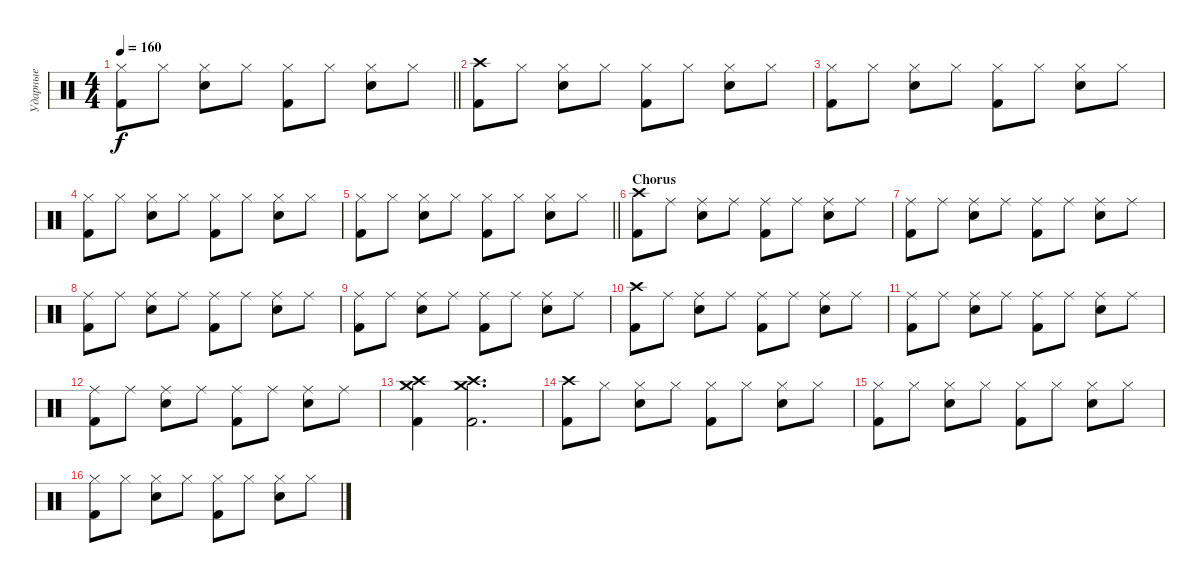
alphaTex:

\track ("Ударные" "Ударные") {instrument percussion}
\staff {score}
\articulation defaults
\ts (4 4)
\tempo 160
\clef neutral
\barLineRight lightlight
\ks c
("Hi-Hat (closed)" "Kick (hit) 2").8{dy f} "Hi-Hat (closed)".8 ("Hi-Hat (closed)" "Snare (hit) 2").8 "Hi-Hat (closed)".8 ("Hi-Hat (closed)" "Kick (hit) 2").8 "Hi-Hat (closed)".8 ("Hi-Hat (closed)" "Snare (hit) 2").8 "Hi-Hat (closed)".8 |
("Crash high (hit)" "Kick (hit) 2").8 "Hi-Hat (closed)".8 ("Hi-Hat (closed)" "Snare (hit) 2").8 "Hi-Hat (closed)".8 ("Hi-Hat (closed)" "Kick (hit) 2").8 "Hi-Hat (closed)".8 ("Hi-Hat (closed)" "Snare (hit) 2").8 "Hi-Hat (closed)".8 |
("Hi-Hat (closed)" "Kick (hit) 2").8 "Hi-Hat (closed)".8 ("Hi-Hat (closed)" "Snare (hit) 2").8 "Hi-Hat (closed)".8 ("Hi-Hat (closed)" "Kick (hit) 2").8 "Hi-Hat (closed)".8 ("Hi-Hat (closed)" "Snare (hit) 2").8 "Hi-Hat (closed)".8 |
("Hi-Hat (closed)" "Kick (hit) 2").8 "Hi-Hat (closed)".8 ("Hi-Hat (closed)" "Snare (hit) 2").8 "Hi-Hat (closed)".8 ("Hi-Hat (closed)" "Kick (hit) 2").8 "Hi-Hat (closed)".8 ("Hi-Hat (closed)" "Snare (hit) 2").8 "Hi-Hat (closed)".8 |
\barLineRight lightlight
("Hi-Hat (closed)" "Kick (hit) 2").8 "Hi-Hat (closed)".8 ("Hi-Hat (closed)" "Snare (hit) 2").8 "Hi-Hat (closed)".8 ("Hi-Hat (closed)" "Kick (hit) 2").8 "Hi-Hat (closed)".8 ("Hi-Hat (closed)" "Snare (hit) 2").8 "Hi-Hat (closed)".8 |
\section ("" "Chorus")
("Crash high (hit)" "Kick (hit) 2").8 "Ride (middle)".8 ("Ride (middle)" "Snare (hit) 2").8 "Ride (middle)".8 ("Ride (middle)" "Kick (hit) 2").8 "Ride (middle)".8 ("Ride (middle)" "Snare (hit) 2").8 "Ride (middle)".8 |
("Ride (middle)" "Kick (hit) 2").8 "Ride (middle)".8 ("Ride (middle)" "Snare (hit) 2").8 "Ride (middle)".8 ("Ride (middle)" "Kick (hit) 2").8 "Ride (middle)".8 ("Ride (middle)" "Snare (hit) 2").8 "Ride (middle)".8 |
("Ride (middle)" "Kick (hit) 2").8 "Ride (middle)".8 ("Ride (middle)" "Snare (hit) 2").8 "Ride (middle)".8 ("Ride (middle)" "Kick (hit) 2").8 "Ride (middle)".8 ("Ride (middle)" "Snare (hit) 2").8 "Ride (middle)".8 |
("Ride (middle)" "Kick (hit) 2").8 "Ride (middle)".8 ("Ride (middle)" "Snare (hit) 2").8 "Ride (middle)".8 ("Ride (middle)" "Kick (hit) 2").8 "Ride (middle)".8 ("Ride (middle)" "Snare (hit) 2").8 "Ride (middle)".8 |
("Crash high (hit)" "Kick (hit) 2").8 "Ride (middle)".8 ("Ride (middle)" "Snare (hit) 2").8 "Ride (middle)".8 ("Ride (middle)" "Kick (hit) 2").8 "Ride (middle)".8 ("Ride (middle)" "Snare (hit) 2").8 "Ride (middle)".8 |
("Ride (middle)" "Kick (hit) 2").8 "Ride (middle)".8 ("Ride (middle)" "Snare (hit) 2").8 "Ride (middle)".8 ("Ride (middle)" "Kick (hit) 2").8 "Ride (middle)".8 ("Ride (middle)" "Snare (hit) 2").8 "Ride (middle)".8 |
("Ride (middle)" "Kick (hit) 2").8 "Ride (middle)".8 ("Ride (middle)" "Snare (hit) 2").8 "Ride (middle)".8 ("Ride (middle)" "Kick (hit) 2").8 "Ride (middle)".8 ("Ride (middle)" "Snare (hit) 2").8 "Ride (middle)".8 |
("Crash high (hit)" "Crash medium (hit)" "Kick (hit) 2").4 ("Crash high (hit)" "Crash medium (hit)" "Kick (hit) 2").2{d} |
("Crash high (hit)" "Kick (hit) 2").8 "Hi-Hat (closed)".8 ("Hi-Hat (closed)" "Snare (hit) 2").8 "Hi-Hat (closed)".8 ("Hi-Hat (closed)" "Kick (hit) 2").8 "Hi-Hat (closed)".8 ("Hi-Hat (closed)" "Snare (hit) 2").8 "Hi-Hat (closed)".8 |
("Hi-Hat (closed)" "Kick (hit) 2").8 "Hi-Hat (closed)".8 ("Hi-Hat (closed)" "Snare (hit) 2").8 "Hi-Hat (closed)".8 ("Hi-Hat (closed)" "Kick (hit) 2").8 "Hi-Hat (closed)".8 ("Hi-Hat (closed)" "Snare (hit) 2").8 "Hi-Hat (closed)".8 |
("Hi-Hat (closed)" "Kick (hit) 2").8 "Hi-Hat (closed)".8 ("Hi-Hat (closed)" "Snare (hit) 2").8 "Hi-Hat (closed)".8 ("Hi-Hat (closed)" "Kick (hit) 2").8 "Hi-Hat (closed)".8 ("Hi-Hat (closed)" "Snare (hit) 2").8 "Hi-Hat (closed)".8
